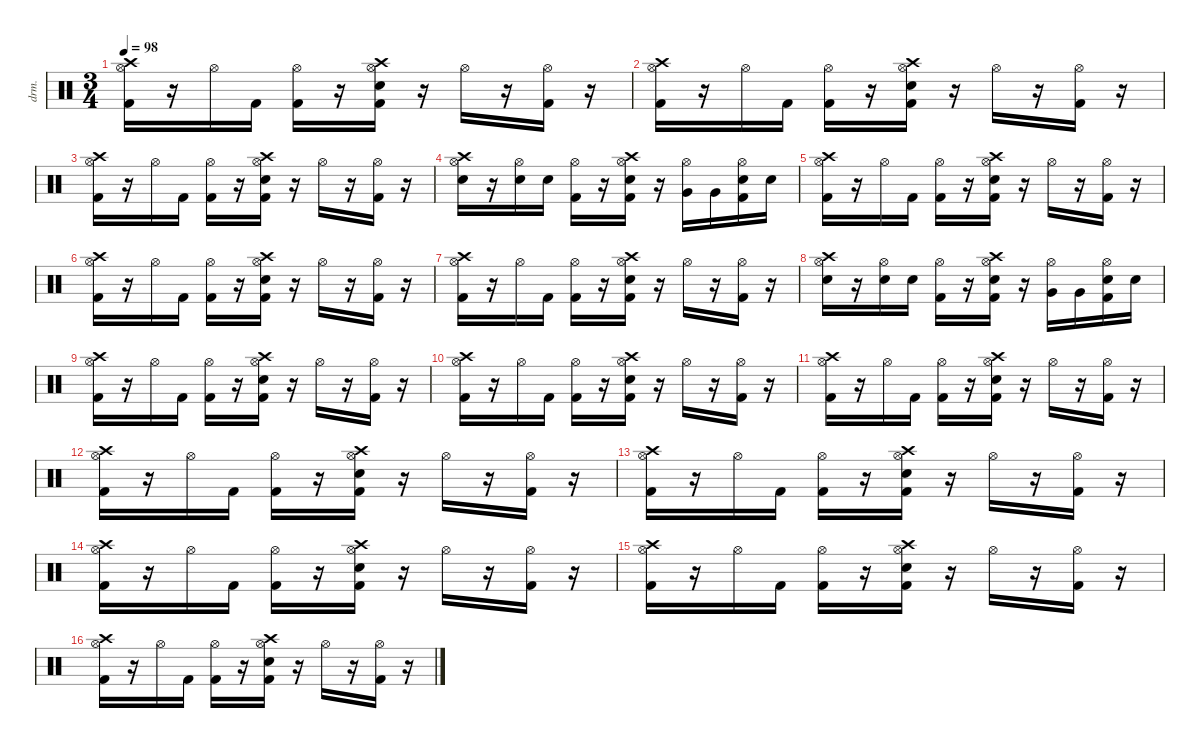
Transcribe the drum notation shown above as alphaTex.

\defaultSystemsLayout 4
\hideDynamics
\bracketExtendMode nobrackets
\otherSystemsTrackNameOrientation horizontal
\track ("Ударные" "drm.") {instrument percussion}
\staff {score}
\articulation defaults
\ts (3 4)
\tempo 98
\clef neutral
\ks c
("Crash high (hit)" "Kick (hit) 2" "Hi-Hat (open)").16{dy fff beam Down} r.16{beam Down} "Hi-Hat (open)".16{dy f beam Down} "Kick (hit) 2".16{dy mf beam Down} ("Kick (hit) 2" "Hi-Hat (open)").16{dy f beam Down} r.16{beam Down} ("Crash high (hit)" "Snare (hit) 2" "Kick (hit) 2" "Hi-Hat (open)").16{beam Down} r.16{beam Down} "Hi-Hat (open)".16{beam Down} r.16{beam Down} ("Kick (hit) 2" "Hi-Hat (open)").16{beam Down} r.16{beam Down} |
("Crash high (hit)" "Kick (hit) 2" "Hi-Hat (open)").16{dy fff beam Down} r.16{beam Down} "Hi-Hat (open)".16{dy f beam Down} "Kick (hit) 2".16{beam Down} ("Kick (hit) 2" "Hi-Hat (open)").16{beam Down} r.16{beam Down} ("Crash high (hit)" "Snare (hit) 2" "Kick (hit) 2" "Hi-Hat (open)").16{beam Down} r.16{beam Down} "Hi-Hat (open)".16{beam Down} r.16{beam Down} ("Kick (hit) 2" "Hi-Hat (open)").16{beam Down} r.16{beam Down} |
("Crash high (hit)" "Kick (hit) 2" "Hi-Hat (open)").16{dy fff beam Down} r.16{beam Down} "Hi-Hat (open)".16{dy f beam Down} "Kick (hit) 2".16{beam Down} ("Kick (hit) 2" "Hi-Hat (open)").16{beam Down} r.16{beam Down} ("Crash high (hit)" "Snare (hit) 2" "Kick (hit) 2" "Hi-Hat (open)").16{beam Down} r.16{beam Down} "Hi-Hat (open)".16{beam Down} r.16{beam Down} ("Kick (hit) 2" "Hi-Hat (open)").16{beam Down} r.16{beam Down} |
("Crash high (hit)" "Snare (hit) 2" "Hi-Hat (open)").16{dy fff beam Down} r.16{beam Down} ("Snare (hit) 2" "Hi-Hat (open)").16{dy f beam Down} "Snare (hit) 2".16{beam Down} ("Kick (hit) 2" "Hi-Hat (open)").16{beam Down} r.16{beam Down} ("Crash high (hit)" "Snare (hit) 2" "Kick (hit) 2" "Hi-Hat (open)").16{beam Down} r.16{beam Down} ("Very Low Tom (hit)" "Hi-Hat (open)").16{beam Down} "Very Low Tom (hit)".16{beam Down} ("Snare (hit) 2" "Kick (hit) 2" "Hi-Hat (open)").16{beam Down} "Snare (hit) 2".16{beam Down} |
("Crash high (hit)" "Kick (hit) 2" "Hi-Hat (open)").16{dy fff beam Down} r.16{beam Down} "Hi-Hat (open)".16{dy f beam Down} "Kick (hit) 2".16{dy mf beam Down} ("Kick (hit) 2" "Hi-Hat (open)").16{dy f beam Down} r.16{beam Down} ("Crash high (hit)" "Snare (hit) 2" "Kick (hit) 2" "Hi-Hat (open)").16{beam Down} r.16{beam Down} "Hi-Hat (open)".16{beam Down} r.16{beam Down} ("Kick (hit) 2" "Hi-Hat (open)").16{beam Down} r.16{beam Down} |
("Crash high (hit)" "Kick (hit) 2" "Hi-Hat (open)").16{dy fff beam Down} r.16{beam Down} "Hi-Hat (open)".16{dy f beam Down} "Kick (hit) 2".16{beam Down} ("Kick (hit) 2" "Hi-Hat (open)").16{beam Down} r.16{beam Down} ("Crash high (hit)" "Snare (hit) 2" "Kick (hit) 2" "Hi-Hat (open)").16{beam Down} r.16{beam Down} "Hi-Hat (open)".16{beam Down} r.16{beam Down} ("Kick (hit) 2" "Hi-Hat (open)").16{beam Down} r.16{beam Down} |
("Crash high (hit)" "Kick (hit) 2" "Hi-Hat (open)").16{dy fff beam Down} r.16{beam Down} "Hi-Hat (open)".16{dy f beam Down} "Kick (hit) 2".16{beam Down} ("Kick (hit) 2" "Hi-Hat (open)").16{beam Down} r.16{beam Down} ("Crash high (hit)" "Snare (hit) 2" "Kick (hit) 2" "Hi-Hat (open)").16{beam Down} r.16{beam Down} "Hi-Hat (open)".16{beam Down} r.16{beam Down} ("Kick (hit) 2" "Hi-Hat (open)").16{beam Down} r.16{beam Down} |
("Crash high (hit)" "Snare (hit) 2" "Hi-Hat (open)").16{dy fff beam Down} r.16{beam Down} ("Snare (hit) 2" "Hi-Hat (open)").16{dy f beam Down} "Snare (hit) 2".16{beam Down} ("Kick (hit) 2" "Hi-Hat (open)").16{beam Down} r.16{beam Down} ("Crash high (hit)" "Snare (hit) 2" "Kick (hit) 2" "Hi-Hat (open)").16{beam Down} r.16{beam Down} ("Very Low Tom (hit)" "Hi-Hat (open)").16{beam Down} "Very Low Tom (hit)".16{beam Down} ("Snare (hit) 2" "Kick (hit) 2" "Hi-Hat (open)").16{beam Down} "Snare (hit) 2".16{beam Down} |
("Crash high (hit)" "Kick (hit) 2" "Hi-Hat (open)").16{dy fff beam Down} r.16{beam Down} "Hi-Hat (open)".16{dy f beam Down} "Kick (hit) 2".16{dy mf beam Down} ("Kick (hit) 2" "Hi-Hat (open)").16{dy f beam Down} r.16{beam Down} ("Crash high (hit)" "Snare (hit) 2" "Kick (hit) 2" "Hi-Hat (open)").16{beam Down} r.16{beam Down} "Hi-Hat (open)".16{beam Down} r.16{beam Down} ("Kick (hit) 2" "Hi-Hat (open)").16{beam Down} r.16{beam Down} |
("Crash high (hit)" "Kick (hit) 2" "Hi-Hat (open)").16{dy fff beam Down} r.16{beam Down} "Hi-Hat (open)".16{dy f beam Down} "Kick (hit) 2".16{beam Down} ("Kick (hit) 2" "Hi-Hat (open)").16{beam Down} r.16{beam Down} ("Crash high (hit)" "Snare (hit) 2" "Kick (hit) 2" "Hi-Hat (open)").16{beam Down} r.16{beam Down} "Hi-Hat (open)".16{beam Down} r.16{beam Down} ("Kick (hit) 2" "Hi-Hat (open)").16{beam Down} r.16{beam Down} |
("Crash high (hit)" "Kick (hit) 2" "Hi-Hat (open)").16{dy fff beam Down} r.16{beam Down} "Hi-Hat (open)".16{dy f beam Down} "Kick (hit) 2".16{beam Down} ("Kick (hit) 2" "Hi-Hat (open)").16{beam Down} r.16{beam Down} ("Crash high (hit)" "Snare (hit) 2" "Kick (hit) 2" "Hi-Hat (open)").16{beam Down} r.16{beam Down} "Hi-Hat (open)".16{beam Down} r.16{beam Down} ("Kick (hit) 2" "Hi-Hat (open)").16{beam Down} r.16{beam Down} |
("Crash high (hit)" "Kick (hit) 2" "Hi-Hat (open)").16{dy fff beam Down} r.16{beam Down} "Hi-Hat (open)".16{dy f beam Down} "Kick (hit) 2".16{dy mf beam Down} ("Kick (hit) 2" "Hi-Hat (open)").16{dy f beam Down} r.16{beam Down} ("Crash high (hit)" "Snare (hit) 2" "Kick (hit) 2" "Hi-Hat (open)").16{beam Down} r.16{beam Down} "Hi-Hat (open)".16{beam Down} r.16{beam Down} ("Kick (hit) 2" "Hi-Hat (open)").16{beam Down} r.16{beam Down} |
("Crash high (hit)" "Kick (hit) 2" "Hi-Hat (open)").16{dy fff beam Down} r.16{beam Down} "Hi-Hat (open)".16{dy f beam Down} "Kick (hit) 2".16{dy mf beam Down} ("Kick (hit) 2" "Hi-Hat (open)").16{dy f beam Down} r.16{beam Down} ("Crash high (hit)" "Snare (hit) 2" "Kick (hit) 2" "Hi-Hat (open)").16{beam Down} r.16{beam Down} "Hi-Hat (open)".16{beam Down} r.16{beam Down} ("Kick (hit) 2" "Hi-Hat (open)").16{beam Down} r.16{beam Down} |
("Crash high (hit)" "Kick (hit) 2" "Hi-Hat (open)").16{dy fff beam Down} r.16{beam Down} "Hi-Hat (open)".16{dy f beam Down} "Kick (hit) 2".16{beam Down} ("Kick (hit) 2" "Hi-Hat (open)").16{beam Down} r.16{beam Down} ("Crash high (hit)" "Snare (hit) 2" "Kick (hit) 2" "Hi-Hat (open)").16{beam Down} r.16{beam Down} "Hi-Hat (open)".16{beam Down} r.16{beam Down} ("Kick (hit) 2" "Hi-Hat (open)").16{beam Down} r.16{beam Down} |
("Crash high (hit)" "Kick (hit) 2" "Hi-Hat (open)").16{dy fff beam Down} r.16{beam Down} "Hi-Hat (open)".16{dy f beam Down} "Kick (hit) 2".16{beam Down} ("Kick (hit) 2" "Hi-Hat (open)").16{beam Down} r.16{beam Down} ("Crash high (hit)" "Snare (hit) 2" "Kick (hit) 2" "Hi-Hat (open)").16{beam Down} r.16{beam Down} "Hi-Hat (open)".16{beam Down} r.16{beam Down} ("Kick (hit) 2" "Hi-Hat (open)").16{beam Down} r.16{beam Down} |
("Crash high (hit)" "Kick (hit) 2" "Hi-Hat (open)").16{dy fff beam Down} r.16{beam Down} "Hi-Hat (open)".16{dy f beam Down} "Kick (hit) 2".16{dy mf beam Down} ("Kick (hit) 2" "Hi-Hat (open)").16{dy f beam Down} r.16{beam Down} ("Crash high (hit)" "Snare (hit) 2" "Kick (hit) 2" "Hi-Hat (open)").16{beam Down} r.16{beam Down} "Hi-Hat (open)".16{beam Down} r.16{beam Down} ("Kick (hit) 2" "Hi-Hat (open)").16{beam Down} r.16{beam Down}
